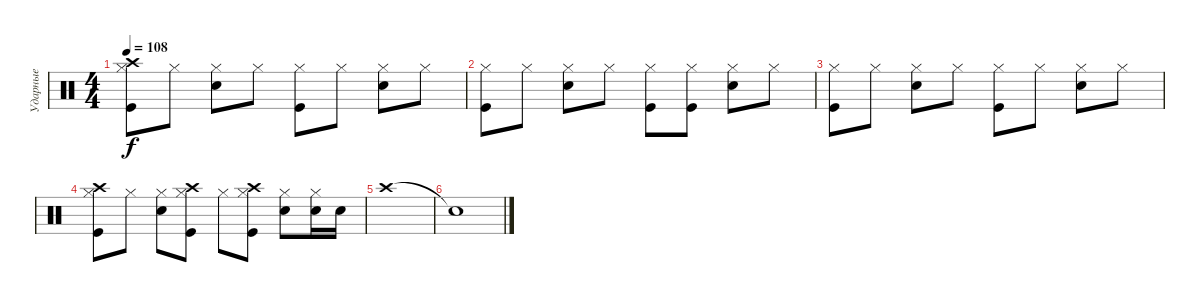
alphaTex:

\track ("Ударные" "Ударные") {instrument percussion}
\staff {score}
\articulation defaults
\ts (4 4)
\tempo 108
\clef neutral
\ks c
("Hi-Hat (closed)" "Kick (hit)" "Crash high (hit)").8{dy f} "Hi-Hat (closed)".8 ("Hi-Hat (closed)" "Snare (hit) 2").8 "Hi-Hat (closed)".8 ("Hi-Hat (closed)" "Kick (hit)").8 "Hi-Hat (closed)".8 ("Hi-Hat (closed)" "Snare (hit) 2").8 "Hi-Hat (closed)".8 |
("Hi-Hat (closed)" "Kick (hit)").8 "Hi-Hat (closed)".8 ("Hi-Hat (closed)" "Snare (hit) 2").8 "Hi-Hat (closed)".8 ("Hi-Hat (closed)" "Kick (hit)").8 ("Hi-Hat (closed)" "Kick (hit)").8 ("Hi-Hat (closed)" "Snare (hit) 2").8 "Hi-Hat (closed)".8 |
("Hi-Hat (closed)" "Kick (hit)").8 "Hi-Hat (closed)".8 ("Hi-Hat (closed)" "Snare (hit) 2").8 "Hi-Hat (closed)".8 ("Hi-Hat (closed)" "Kick (hit)").8 "Hi-Hat (closed)".8 ("Hi-Hat (closed)" "Snare (hit) 2").8 "Hi-Hat (closed)".8 |
("Hi-Hat (closed)" "Kick (hit)" "Crash high (hit)").8 "Hi-Hat (closed)".8 ("Hi-Hat (closed)" "Snare (hit) 2").8 ("Hi-Hat (closed)" "Kick (hit)" "Crash high (hit)").8 "Hi-Hat (closed)".8 ("Hi-Hat (closed)" "Kick (hit)" "Crash high (hit)").8 ("Hi-Hat (closed)" "Snare (hit) 2").8 ("Hi-Hat (closed)" "Snare (hit) 2").16 "Snare (hit) 2".16 |
"Crash high (hit)".1 |
"Snare (hit)"{t}.1
